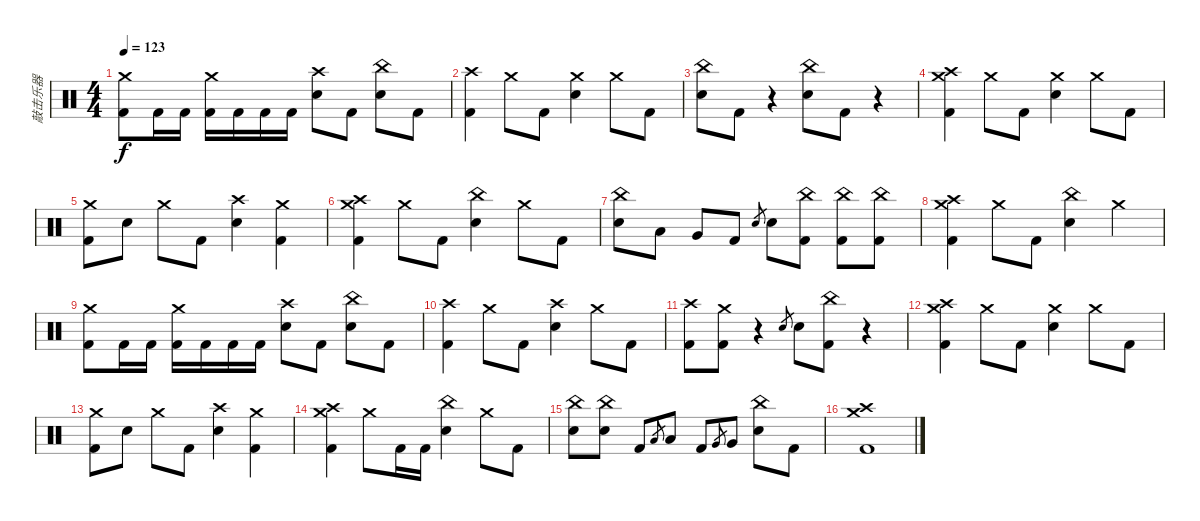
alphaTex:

\track ("敲击乐器" "敲击乐器") {instrument percussion}
\staff {score}
\articulation defaults
\ts (4 4)
\tempo 123
\clef neutral
\ks c
("Crash medium (hit)" "Kick (hit) 2").8{dy f} "Kick (hit) 2".16 "Kick (hit) 2".16 ("Crash medium (hit)" "Kick (hit) 2").16 "Kick (hit) 2".16 "Kick (hit) 2".16 "Kick (hit) 2".16 ("Crash high (hit)" "Electric Snare (hit)").8 "Kick (hit) 2".8 ("China (hit)" "Electric Snare (hit)").8 "Kick (hit) 2".8 |
("Crash high (hit)" "Kick (hit) 2").4 "Crash medium (hit)".8 "Kick (hit) 2".8 ("Crash medium (hit)" "Electric Snare (hit)").4 "Crash medium (hit)".8 "Kick (hit) 2".8 |
("China (hit)" "Electric Snare (hit)").8 "Kick (hit) 2".8 r.4 ("China (hit)" "Electric Snare (hit)").8 "Kick (hit) 2".8 r.4 |
("Crash high (hit)" "Crash medium (hit)" "Kick (hit) 2").4 "Crash medium (hit)".8 "Kick (hit) 2".8 ("Crash medium (hit)" "Electric Snare (hit)").4 "Crash medium (hit)".8 "Kick (hit) 2".8 |
("Crash medium (hit)" "Kick (hit) 2").8 "Electric Snare (hit)".8 "Crash medium (hit)".8 "Kick (hit) 2".8 ("Crash high (hit)" "Electric Snare (hit)").4 ("Crash medium (hit)" "Kick (hit) 2").4 |
("Crash high (hit)" "Crash medium (hit)" "Kick (hit) 2").4 "Crash medium (hit)".8 "Kick (hit) 2".8 ("China (hit)" "Electric Snare (hit)").4 "Crash medium (hit)".8 "Kick (hit) 2".8 |
("China (hit)" "Electric Snare (hit)").8 "Low Tom (hit)".8 "Very Low Tom (hit)".8 "Kick (hit) 2".8 "Electric Snare (hit)".8{gr} "Electric Snare (hit)".8 ("China (hit)" "Kick (hit) 2").8 ("China (hit)" "Kick (hit) 2").8 ("China (hit)" "Kick (hit) 2").8 |
("Crash high (hit)" "Crash medium (hit)" "Kick (hit) 2").4 "Crash medium (hit)".8 "Kick (hit) 2".8 ("China (hit)" "Electric Snare (hit)").4 "Crash medium (hit)".4 |
("Crash medium (hit)" "Kick (hit) 2").8 "Kick (hit) 2".16 "Kick (hit) 2".16 ("Crash medium (hit)" "Kick (hit) 2").16 "Kick (hit) 2".16 "Kick (hit) 2".16 "Kick (hit) 2".16 ("Crash high (hit)" "Electric Snare (hit)").8 "Kick (hit) 2".8 ("China (hit)" "Electric Snare (hit)").8 "Kick (hit) 2".8 |
("Crash high (hit)" "Kick (hit) 2").4 "Crash medium (hit)".8 "Kick (hit) 2".8 ("Crash high (hit)" "Electric Snare (hit)").4 "Crash medium (hit)".8 "Kick (hit) 2".8 |
("Crash high (hit)" "Kick (hit) 2").8 ("Crash medium (hit)" "Kick (hit) 2").8 r.4 "Electric Snare (hit)".8{gr} "Electric Snare (hit)".8 ("China (hit)" "Kick (hit) 2").8 r.4 |
("Crash high (hit)" "Crash medium (hit)" "Kick (hit) 2").4 "Crash medium (hit)".8 "Kick (hit) 2".8 ("Crash medium (hit)" "Electric Snare (hit)").4 "Crash medium (hit)".8 "Kick (hit) 2".8 |
("Crash medium (hit)" "Kick (hit) 2").8 "Electric Snare (hit)".8 "Crash medium (hit)".8 "Kick (hit) 2".8 ("Crash high (hit)" "Electric Snare (hit)").4 ("Crash medium (hit)" "Kick (hit) 2").4 |
("Crash high (hit)" "Crash medium (hit)" "Kick (hit) 2").4 "Crash medium (hit)".8 "Kick (hit) 2".16 "Kick (hit) 2".16 ("China (hit)" "Electric Snare (hit)").4 "Crash medium (hit)".8 "Kick (hit) 2".8 |
("China (hit)" "Electric Snare (hit)").8 ("China (hit)" "Electric Snare (hit)").8 "Kick (hit) 2".8 "Low Tom (hit)".8{gr} "Low Tom (hit)".8 "Kick (hit) 2".8 "Very Low Tom (hit)".8{gr} "Very Low Tom (hit)".8 ("China (hit)" "Electric Snare (hit)").8 "Kick (hit) 2".8 |
("Crash medium (hit)" "Crash high (hit)" "Kick (hit) 2").1
